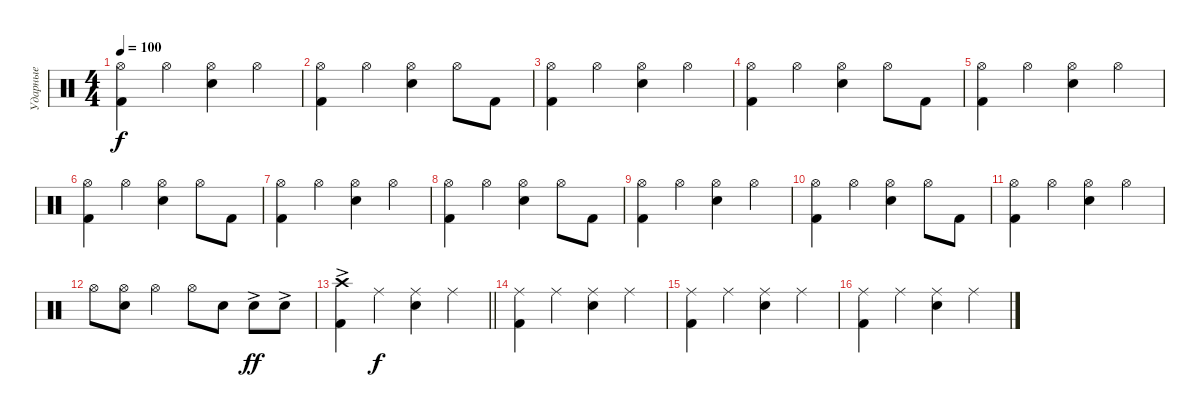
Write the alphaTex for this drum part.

\track ("Ударные" "Ударные") {instrument percussion}
\staff {score}
\articulation defaults
\ts (4 4)
\tempo 100
\clef neutral
\ks c
("Kick (hit) 2" "Hi-Hat (open)").4{dy f} "Hi-Hat (open)".4 ("Snare (hit) 2" "Hi-Hat (open)").4 "Hi-Hat (open)".4 |
("Kick (hit) 2" "Hi-Hat (open)").4 "Hi-Hat (open)".4 ("Snare (hit) 2" "Hi-Hat (open)").4 "Hi-Hat (open)".8 "Kick (hit) 2".8 |
("Kick (hit) 2" "Hi-Hat (open)").4 "Hi-Hat (open)".4 ("Snare (hit) 2" "Hi-Hat (open)").4 "Hi-Hat (open)".4 |
("Kick (hit) 2" "Hi-Hat (open)").4 "Hi-Hat (open)".4 ("Snare (hit) 2" "Hi-Hat (open)").4 "Hi-Hat (open)".8 "Kick (hit) 2".8 |
("Kick (hit) 2" "Hi-Hat (open)").4 "Hi-Hat (open)".4 ("Snare (hit) 2" "Hi-Hat (open)").4 "Hi-Hat (open)".4 |
("Kick (hit) 2" "Hi-Hat (open)").4 "Hi-Hat (open)".4 ("Snare (hit) 2" "Hi-Hat (open)").4 "Hi-Hat (open)".8 "Kick (hit) 2".8 |
("Kick (hit) 2" "Hi-Hat (open)").4 "Hi-Hat (open)".4 ("Snare (hit) 2" "Hi-Hat (open)").4 "Hi-Hat (open)".4 |
("Kick (hit) 2" "Hi-Hat (open)").4 "Hi-Hat (open)".4 ("Snare (hit) 2" "Hi-Hat (open)").4 "Hi-Hat (open)".8 "Kick (hit) 2".8 |
("Kick (hit) 2" "Hi-Hat (open)").4 "Hi-Hat (open)".4 ("Snare (hit) 2" "Hi-Hat (open)").4 "Hi-Hat (open)".4 |
("Kick (hit) 2" "Hi-Hat (open)").4 "Hi-Hat (open)".4 ("Snare (hit) 2" "Hi-Hat (open)").4 "Hi-Hat (open)".8 "Kick (hit) 2".8 |
("Kick (hit) 2" "Hi-Hat (open)").4 "Hi-Hat (open)".4 ("Snare (hit) 2" "Hi-Hat (open)").4 "Hi-Hat (open)".4 |
"Hi-Hat (open)".8 ("Snare (hit) 2" "Hi-Hat (open)").8 "Hi-Hat (open)".4 "Hi-Hat (open)".8 "Snare (hit) 2".8 "Snare (hit) 2"{ac}.8{dy ff} "Snare (hit) 2"{ac}.8 |
\barLineRight lightlight
("Kick (hit) 2" "Crash high (hit)"{ac}).4 "Ride (middle)".4{dy f} ("Snare (hit) 2" "Ride (middle)").4 "Ride (middle)".4 |
("Kick (hit) 2" "Ride (middle)").4 "Ride (middle)".4 ("Snare (hit) 2" "Ride (middle)").4 "Ride (middle)".4 |
("Kick (hit) 2" "Ride (middle)").4 "Ride (middle)".4 ("Snare (hit) 2" "Ride (middle)").4 "Ride (middle)".4 |
("Kick (hit) 2" "Ride (middle)").4 "Ride (middle)".4 ("Snare (hit) 2" "Ride (middle)").4 "Ride (middle)".4
